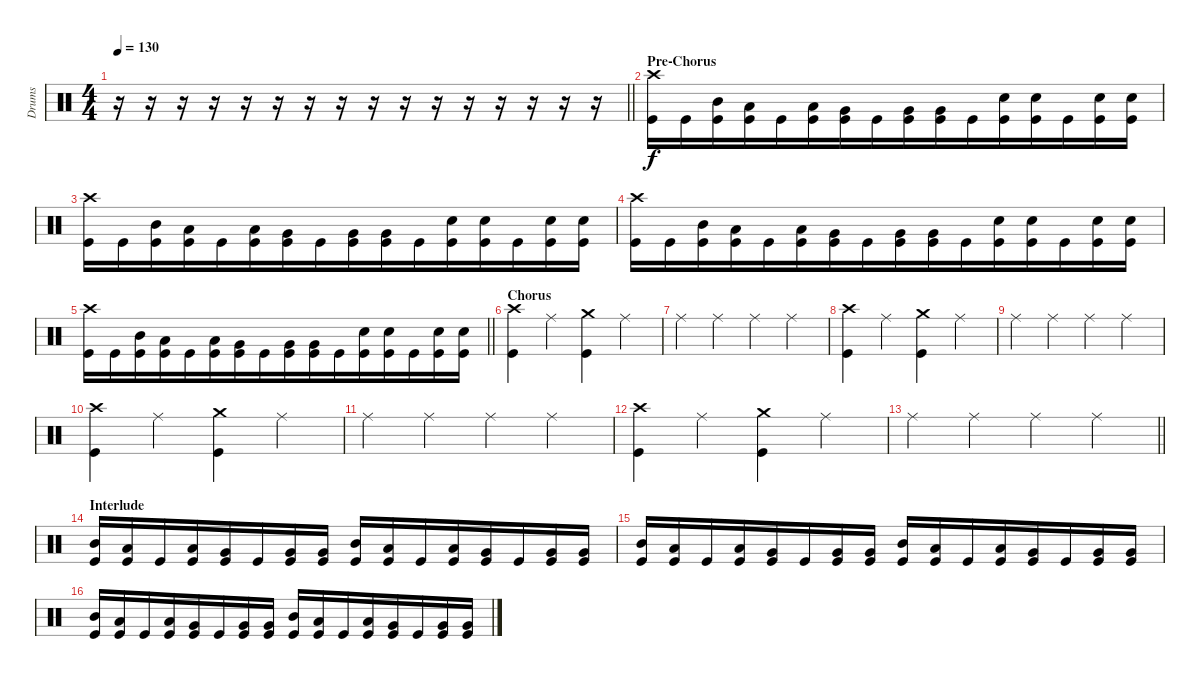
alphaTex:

\track ("Drums" "Drums") {instrument percussion}
\staff {score}
\articulation defaults
\ts (4 4)
\tempo 130
\clef neutral
\barLineRight lightlight
\ks c
r.16{dy f} r.16 r.16 r.16 r.16 r.16 r.16 r.16 r.16 r.16 r.16 r.16 r.16 r.16 r.16 r.16 |
\section ("" "Pre-Chorus")
("Crash high (hit)" "Kick (hit)").16{beam merge} "Kick (hit)".16 ("Mid Tom (hit)" "Kick (hit)").16{beam merge} ("Low Tom (hit)" "Kick (hit)").16{beam merge} "Kick (hit)".16 ("Low Tom (hit)" "Kick (hit)").16{beam merge} ("Very Low Tom (hit)" "Kick (hit)").16{beam merge} "Kick (hit)".16{beam merge} ("Very Low Tom (hit)" "Kick (hit)").16 ("Very Low Tom (hit)" "Kick (hit)").16{beam merge} "Kick (hit)".16{beam merge} ("Snare (hit) 2" "Kick (hit)").16{beam merge} ("Snare (hit) 2" "Kick (hit)").16 "Kick (hit)".16{beam merge} ("Snare (hit) 2" "Kick (hit)").16{beam merge} ("Snare (hit) 2" "Kick (hit)").16 |
("Crash high (hit)" "Kick (hit)").16{beam merge} "Kick (hit)".16 ("Mid Tom (hit)" "Kick (hit)").16{beam merge} ("Low Tom (hit)" "Kick (hit)").16{beam merge} "Kick (hit)".16 ("Low Tom (hit)" "Kick (hit)").16{beam merge} ("Very Low Tom (hit)" "Kick (hit)").16{beam merge} "Kick (hit)".16{beam merge} ("Very Low Tom (hit)" "Kick (hit)").16 ("Very Low Tom (hit)" "Kick (hit)").16{beam merge} "Kick (hit)".16{beam merge} ("Snare (hit) 2" "Kick (hit)").16{beam merge} ("Snare (hit) 2" "Kick (hit)").16 "Kick (hit)".16{beam merge} ("Snare (hit) 2" "Kick (hit)").16{beam merge} ("Snare (hit) 2" "Kick (hit)").16 |
("Crash high (hit)" "Kick (hit)").16{beam merge} "Kick (hit)".16 ("Mid Tom (hit)" "Kick (hit)").16{beam merge} ("Low Tom (hit)" "Kick (hit)").16{beam merge} "Kick (hit)".16 ("Low Tom (hit)" "Kick (hit)").16{beam merge} ("Very Low Tom (hit)" "Kick (hit)").16{beam merge} "Kick (hit)".16{beam merge} ("Very Low Tom (hit)" "Kick (hit)").16 ("Very Low Tom (hit)" "Kick (hit)").16{beam merge} "Kick (hit)".16{beam merge} ("Snare (hit) 2" "Kick (hit)").16{beam merge} ("Snare (hit) 2" "Kick (hit)").16 "Kick (hit)".16{beam merge} ("Snare (hit) 2" "Kick (hit)").16{beam merge} ("Snare (hit) 2" "Kick (hit)").16 |
\barLineRight lightlight
("Crash high (hit)" "Kick (hit)").16{beam merge} "Kick (hit)".16 ("Mid Tom (hit)" "Kick (hit)").16{beam merge} ("Low Tom (hit)" "Kick (hit)").16{beam merge} "Kick (hit)".16 ("Low Tom (hit)" "Kick (hit)").16{beam merge} ("Very Low Tom (hit)" "Kick (hit)").16{beam merge} "Kick (hit)".16{beam merge} ("Very Low Tom (hit)" "Kick (hit)").16 ("Very Low Tom (hit)" "Kick (hit)").16{beam merge} "Kick (hit)".16{beam merge} ("Snare (hit) 2" "Kick (hit)").16{beam merge} ("Snare (hit) 2" "Kick (hit)").16 "Kick (hit)".16{beam merge} ("Snare (hit) 2" "Kick (hit)").16{beam merge} ("Snare (hit) 2" "Kick (hit)").16 |
\section ("" "Chorus")
("Crash high (hit)" "Kick (hit)").4 "Ride (middle)".4 ("Crash medium (hit)" "Kick (hit)").4 "Ride (middle)".4 |
"Ride (middle)".4 "Ride (middle)".4{beam merge} "Ride (middle)".4 "Ride (middle)".4 |
("Crash high (hit)" "Kick (hit)").4 "Ride (middle)".4 ("Crash medium (hit)" "Kick (hit)").4 "Ride (middle)".4 |
"Ride (middle)".4 "Ride (middle)".4{beam merge} "Ride (middle)".4 "Ride (middle)".4 |
("Crash high (hit)" "Kick (hit)").4 "Ride (middle)".4 ("Crash medium (hit)" "Kick (hit)").4 "Ride (middle)".4 |
"Ride (middle)".4 "Ride (middle)".4{beam merge} "Ride (middle)".4 "Ride (middle)".4 |
("Crash high (hit)" "Kick (hit)").4 "Ride (middle)".4 ("Crash medium (hit)" "Kick (hit)").4 "Ride (middle)".4 |
\barLineRight lightlight "Ride (middle)".4 "Ride (middle)".4{beam merge} "Ride (middle)".4 "Ride (middle)".4
|
\section ("" "Interlude")
("Mid Tom (hit)" "Kick (hit)").16{beam merge} ("Low Tom (hit)" "Kick (hit)").16{beam merge} "Kick (hit)".16 ("Low Tom (hit)" "Kick (hit)").16{beam merge} ("Very Low Tom (hit)" "Kick (hit)").16{beam merge} "Kick (hit)".16{beam merge} ("Very Low Tom (hit)" "Kick (hit)").16 ("Very Low Tom (hit)" "Kick (hit)").16 ("Mid Tom (hit)" "Kick (hit)").16{beam merge} ("Low Tom (hit)" "Kick (hit)").16{beam merge} "Kick (hit)".16 ("Low Tom (hit)" "Kick (hit)").16{beam merge} ("Very Low Tom (hit)" "Kick (hit)").16{beam merge} "Kick (hit)".16{beam merge} ("Very Low Tom (hit)" "Kick (hit)").16 ("Very Low Tom (hit)" "Kick (hit)").16 |
("Mid Tom (hit)" "Kick (hit)").16{beam merge} ("Low Tom (hit)" "Kick (hit)").16{beam merge} "Kick (hit)".16 ("Low Tom (hit)" "Kick (hit)").16{beam merge} ("Very Low Tom (hit)" "Kick (hit)").16{beam merge} "Kick (hit)".16{beam merge} ("Very Low Tom (hit)" "Kick (hit)").16 ("Very Low Tom (hit)" "Kick (hit)").16 ("Mid Tom (hit)" "Kick (hit)").16{beam merge} ("Low Tom (hit)" "Kick (hit)").16{beam merge} "Kick (hit)".16 ("Low Tom (hit)" "Kick (hit)").16{beam merge} ("Very Low Tom (hit)" "Kick (hit)").16{beam merge} "Kick (hit)".16{beam merge} ("Very Low Tom (hit)" "Kick (hit)").16 ("Very Low Tom (hit)" "Kick (hit)").16 |
("Mid Tom (hit)" "Kick (hit)").16{beam merge} ("Low Tom (hit)" "Kick (hit)").16{beam merge} "Kick (hit)".16 ("Low Tom (hit)" "Kick (hit)").16{beam merge} ("Very Low Tom (hit)" "Kick (hit)").16{beam merge} "Kick (hit)".16{beam merge} ("Very Low Tom (hit)" "Kick (hit)").16 ("Very Low Tom (hit)" "Kick (hit)").16 ("Mid Tom (hit)" "Kick (hit)").16{beam merge} ("Low Tom (hit)" "Kick (hit)").16{beam merge} "Kick (hit)".16 ("Low Tom (hit)" "Kick (hit)").16{beam merge} ("Very Low Tom (hit)" "Kick (hit)").16{beam merge} "Kick (hit)".16{beam merge} ("Very Low Tom (hit)" "Kick (hit)").16 ("Very Low Tom (hit)" "Kick (hit)").16
